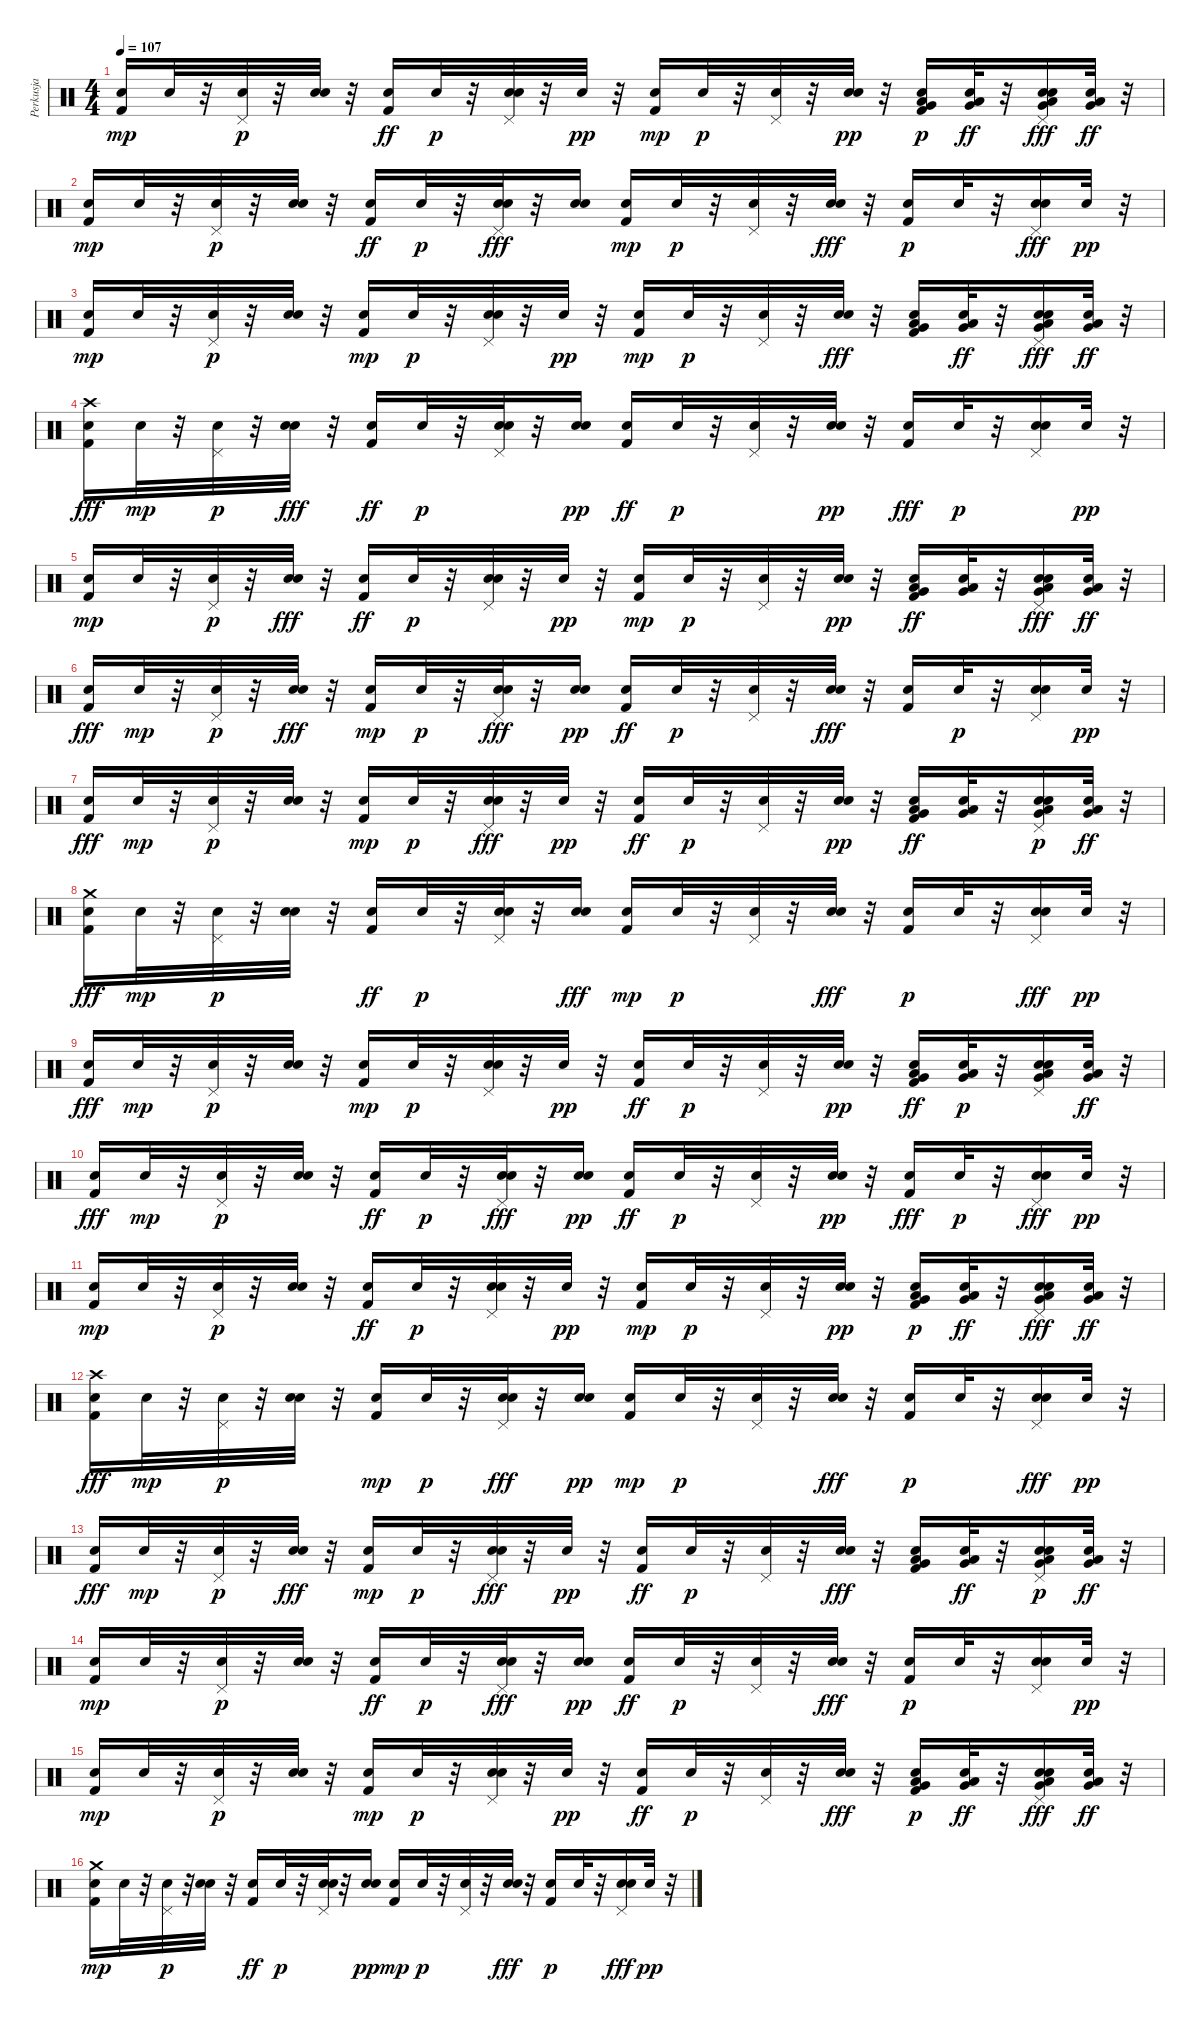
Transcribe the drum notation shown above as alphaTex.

\track ("Perkusja" "Perkusja") {instrument percussion}
\staff {score}
\articulation defaults
\ts (4 4)
\tempo 107
\clef neutral
\ks c
("Kick (hit) 2" "Snare (hit) 2").16{dy mp} "Snare (hit) 2".32 r.32 ("Snare (hit) 2" "Pedal Hi-Hat (hit)").32{dy p} r.32 ("Electric Snare (hit)" "Snare (hit) 2").32 r.32 ("Snare (hit) 2" "Kick (hit) 2").16{dy ff} "Snare (hit) 2".32{dy p} r.32 ("Electric Snare (hit)" "Snare (hit) 2" "Pedal Hi-Hat (hit)").32 r.32 "Snare (hit) 2".32{dy pp} r.32 ("Kick (hit) 2" "Snare (hit) 2").16{dy mp} "Snare (hit) 2".32{dy p} r.32 ("Pedal Hi-Hat (hit)" "Snare (hit) 2").32 r.32 ("Electric Snare (hit)" "Snare (hit) 2").32{dy pp} r.32 ("Kick (hit) 2" "Very Low Tom (hit)" "Low Floor Tom (hit)" "Snare (hit) 2").16{dy p} ("Very Low Tom (hit)" "Snare (hit) 2" "Low Floor Tom (hit)").32{dy ff} r.32 ("Pedal Hi-Hat (hit)" "Snare (hit) 2" "Low Floor Tom (hit)" "Very Low Tom (hit)" "Electric Snare (hit)").16{dy fff} ("Snare (hit) 2" "Low Floor Tom (hit)" "Very Low Tom (hit)").32{dy ff} r.32 |
("Kick (hit) 2" "Snare (hit) 2").16{dy mp} "Snare (hit) 2".32 r.32 ("Snare (hit) 2" "Pedal Hi-Hat (hit)").32{dy p} r.32 ("Electric Snare (hit)" "Snare (hit) 2").32 r.32 ("Snare (hit) 2" "Kick (hit) 2").16{dy ff} "Snare (hit) 2".32{dy p} r.32 ("Snare (hit) 2" "Pedal Hi-Hat (hit)" "Electric Snare (hit)").32{dy fff} r.32 ("Snare (hit) 2" "Electric Snare (hit)").16 ("Kick (hit) 2" "Snare (hit) 2").16{dy mp} "Snare (hit) 2".32{dy p} r.32 ("Snare (hit) 2" "Pedal Hi-Hat (hit)").32 r.32 ("Snare (hit) 2" "Electric Snare (hit)").32{dy fff} r.32 ("Kick (hit) 2" "Snare (hit) 2").16{dy p} "Snare (hit) 2".32 r.32 ("Snare (hit) 2" "Electric Snare (hit)" "Pedal Hi-Hat (hit)").16{dy fff} "Snare (hit) 2".32{dy pp} r.32 |
("Kick (hit) 2" "Snare (hit) 2").16{dy mp} "Snare (hit) 2".32 r.32 ("Pedal Hi-Hat (hit)" "Snare (hit) 2").32{dy p} r.32 ("Electric Snare (hit)" "Snare (hit) 2").32 r.32 ("Kick (hit) 2" "Snare (hit) 2").16{dy mp} "Snare (hit) 2".32{dy p} r.32 ("Electric Snare (hit)" "Pedal Hi-Hat (hit)" "Snare (hit) 2").32 r.32 "Snare (hit) 2".32{dy pp} r.32 ("Kick (hit) 2" "Snare (hit) 2").16{dy mp} "Snare (hit) 2".32{dy p} r.32 ("Pedal Hi-Hat (hit)" "Snare (hit) 2").32 r.32 ("Snare (hit) 2" "Electric Snare (hit)").32{dy fff} r.32 ("Very Low Tom (hit)" "Low Floor Tom (hit)" "Snare (hit) 2" "Kick (hit) 2").16 ("Snare (hit) 2" "Very Low Tom (hit)" "Low Floor Tom (hit)").32{dy ff} r.32 ("Very Low Tom (hit)" "Pedal Hi-Hat (hit)" "Snare (hit) 2" "Low Floor Tom (hit)" "Electric Snare (hit)").16{dy fff} ("Snare (hit) 2" "Very Low Tom (hit)" "Low Floor Tom (hit)").32{dy ff} r.32 |
("Kick (hit) 2" "Snare (hit) 2" "Crash high (hit)").16{dy fff} "Snare (hit) 2".32{dy mp} r.32 ("Pedal Hi-Hat (hit)" "Snare (hit) 2").32{dy p} r.32 ("Snare (hit) 2" "Electric Snare (hit)").32{dy fff} r.32 ("Snare (hit) 2" "Kick (hit) 2").16{dy ff} "Snare (hit) 2".32{dy p} r.32 ("Electric Snare (hit)" "Snare (hit) 2" "Pedal Hi-Hat (hit)").32 r.32 ("Electric Snare (hit)" "Snare (hit) 2").16{dy pp} ("Snare (hit) 2" "Kick (hit) 2").16{dy ff} "Snare (hit) 2".32{dy p} r.32 ("Snare (hit) 2" "Pedal Hi-Hat (hit)").32 r.32 ("Electric Snare (hit)" "Snare (hit) 2").32{dy pp} r.32 ("Snare (hit) 2" "Kick (hit) 2").16{dy fff} "Snare (hit) 2".32{dy p} r.32 ("Pedal Hi-Hat (hit)" "Electric Snare (hit)" "Snare (hit) 2").16 "Snare (hit) 2".32{dy pp} r.32 |
("Kick (hit) 2" "Snare (hit) 2").16{dy mp} "Snare (hit) 2".32 r.32 ("Snare (hit) 2" "Pedal Hi-Hat (hit)").32{dy p} r.32 ("Snare (hit) 2" "Electric Snare (hit)").32{dy fff} r.32 ("Snare (hit) 2" "Kick (hit) 2").16{dy ff} "Snare (hit) 2".32{dy p} r.32 ("Electric Snare (hit)" "Snare (hit) 2" "Pedal Hi-Hat (hit)").32 r.32 "Snare (hit) 2".32{dy pp} r.32 ("Kick (hit) 2" "Snare (hit) 2").16{dy mp} "Snare (hit) 2".32{dy p} r.32 ("Snare (hit) 2" "Pedal Hi-Hat (hit)").32 r.32 ("Electric Snare (hit)" "Snare (hit) 2").32{dy pp} r.32 ("Kick (hit) 2" "Snare (hit) 2" "Low Floor Tom (hit)" "Very Low Tom (hit)").16{dy ff} ("Low Floor Tom (hit)" "Snare (hit) 2" "Very Low Tom (hit)").32 r.32 ("Snare (hit) 2" "Pedal Hi-Hat (hit)" "Electric Snare (hit)" "Very Low Tom (hit)" "Low Floor Tom (hit)").16{dy fff} ("Low Floor Tom (hit)" "Snare (hit) 2" "Very Low Tom (hit)").32{dy ff} r.32 |
("Snare (hit) 2" "Kick (hit) 2").16{dy fff} "Snare (hit) 2".32{dy mp} r.32 ("Snare (hit) 2" "Pedal Hi-Hat (hit)").32{dy p} r.32 ("Snare (hit) 2" "Electric Snare (hit)").32{dy fff} r.32 ("Kick (hit) 2" "Snare (hit) 2").16{dy mp} "Snare (hit) 2".32{dy p} r.32 ("Pedal Hi-Hat (hit)" "Snare (hit) 2" "Electric Snare (hit)").32{dy fff} r.32 ("Electric Snare (hit)" "Snare (hit) 2").16{dy pp} ("Snare (hit) 2" "Kick (hit) 2").16{dy ff} "Snare (hit) 2".32{dy p} r.32 ("Snare (hit) 2" "Pedal Hi-Hat (hit)").32 r.32 ("Snare (hit) 2" "Electric Snare (hit)").32{dy fff} r.32 ("Snare (hit) 2" "Kick (hit) 2").16 "Snare (hit) 2".32{dy p} r.32 ("Pedal Hi-Hat (hit)" "Electric Snare (hit)" "Snare (hit) 2").16 "Snare (hit) 2".32{dy pp} r.32 |
("Snare (hit) 2" "Kick (hit) 2").16{dy fff} "Snare (hit) 2".32{dy mp} r.32 ("Pedal Hi-Hat (hit)" "Snare (hit) 2").32{dy p} r.32 ("Electric Snare (hit)" "Snare (hit) 2").32 r.32 ("Kick (hit) 2" "Snare (hit) 2").16{dy mp} "Snare (hit) 2".32{dy p} r.32 ("Pedal Hi-Hat (hit)" "Snare (hit) 2" "Electric Snare (hit)").32{dy fff} r.32 "Snare (hit) 2".32{dy pp} r.32 ("Snare (hit) 2" "Kick (hit) 2").16{dy ff} "Snare (hit) 2".32{dy p} r.32 ("Snare (hit) 2" "Pedal Hi-Hat (hit)").32 r.32 ("Electric Snare (hit)" "Snare (hit) 2").32{dy pp} r.32 ("Kick (hit) 2" "Snare (hit) 2" "Low Floor Tom (hit)" "Very Low Tom (hit)").16{dy ff} ("Snare (hit) 2" "Very Low Tom (hit)" "Low Floor Tom (hit)").32 r.32 ("Low Floor Tom (hit)" "Electric Snare (hit)" "Very Low Tom (hit)" "Pedal Hi-Hat (hit)" "Snare (hit) 2").16{dy p} ("Snare (hit) 2" "Low Floor Tom (hit)" "Very Low Tom (hit)").32{dy ff} r.32 |
("Kick (hit) 2" "Snare (hit) 2" "Crash medium (hit)").16{dy fff} "Snare (hit) 2".32{dy mp} r.32 ("Pedal Hi-Hat (hit)" "Snare (hit) 2").32{dy p} r.32 ("Electric Snare (hit)" "Snare (hit) 2").32 r.32 ("Snare (hit) 2" "Kick (hit) 2").16{dy ff} "Snare (hit) 2".32{dy p} r.32 ("Electric Snare (hit)" "Pedal Hi-Hat (hit)" "Snare (hit) 2").32 r.32 ("Snare (hit) 2" "Electric Snare (hit)").16{dy fff} ("Kick (hit) 2" "Snare (hit) 2").16{dy mp} "Snare (hit) 2".32{dy p} r.32 ("Snare (hit) 2" "Pedal Hi-Hat (hit)").32 r.32 ("Snare (hit) 2" "Electric Snare (hit)").32{dy fff} r.32 ("Kick (hit) 2" "Snare (hit) 2").16{dy p} "Snare (hit) 2".32 r.32 ("Snare (hit) 2" "Pedal Hi-Hat (hit)" "Electric Snare (hit)").16{dy fff} "Snare (hit) 2".32{dy pp} r.32 |
("Snare (hit) 2" "Kick (hit) 2").16{dy fff} "Snare (hit) 2".32{dy mp} r.32 ("Pedal Hi-Hat (hit)" "Snare (hit) 2").32{dy p} r.32 ("Electric Snare (hit)" "Snare (hit) 2").32 r.32 ("Kick (hit) 2" "Snare (hit) 2").16{dy mp} "Snare (hit) 2".32{dy p} r.32 ("Pedal Hi-Hat (hit)" "Electric Snare (hit)" "Snare (hit) 2").32 r.32 "Snare (hit) 2".32{dy pp} r.32 ("Snare (hit) 2" "Kick (hit) 2").16{dy ff} "Snare (hit) 2".32{dy p} r.32 ("Pedal Hi-Hat (hit)" "Snare (hit) 2").32 r.32 ("Electric Snare (hit)" "Snare (hit) 2").32{dy pp} r.32 ("Snare (hit) 2" "Low Floor Tom (hit)" "Kick (hit) 2" "Very Low Tom (hit)").16{dy ff} ("Low Floor Tom (hit)" "Very Low Tom (hit)" "Snare (hit) 2").32{dy p} r.32 ("Electric Snare (hit)" "Low Floor Tom (hit)" "Very Low Tom (hit)" "Snare (hit) 2" "Pedal Hi-Hat (hit)").16 ("Low Floor Tom (hit)" "Snare (hit) 2" "Very Low Tom (hit)").32{dy ff} r.32 |
("Snare (hit) 2" "Kick (hit) 2").16{dy fff} "Snare (hit) 2".32{dy mp} r.32 ("Pedal Hi-Hat (hit)" "Snare (hit) 2").32{dy p} r.32 ("Electric Snare (hit)" "Snare (hit) 2").32 r.32 ("Snare (hit) 2" "Kick (hit) 2").16{dy ff} "Snare (hit) 2".32{dy p} r.32 ("Snare (hit) 2" "Electric Snare (hit)" "Pedal Hi-Hat (hit)").32{dy fff} r.32 ("Electric Snare (hit)" "Snare (hit) 2").16{dy pp} ("Snare (hit) 2" "Kick (hit) 2").16{dy ff} "Snare (hit) 2".32{dy p} r.32 ("Pedal Hi-Hat (hit)" "Snare (hit) 2").32 r.32 ("Electric Snare (hit)" "Snare (hit) 2").32{dy pp} r.32 ("Snare (hit) 2" "Kick (hit) 2").16{dy fff} "Snare (hit) 2".32{dy p} r.32 ("Snare (hit) 2" "Pedal Hi-Hat (hit)" "Electric Snare (hit)").16{dy fff} "Snare (hit) 2".32{dy pp} r.32 |
("Kick (hit) 2" "Snare (hit) 2").16{dy mp} "Snare (hit) 2".32 r.32 ("Pedal Hi-Hat (hit)" "Snare (hit) 2").32{dy p} r.32 ("Electric Snare (hit)" "Snare (hit) 2").32 r.32 ("Snare (hit) 2" "Kick (hit) 2").16{dy ff} "Snare (hit) 2".32{dy p} r.32 ("Pedal Hi-Hat (hit)" "Electric Snare (hit)" "Snare (hit) 2").32 r.32 "Snare (hit) 2".32{dy pp} r.32 ("Kick (hit) 2" "Snare (hit) 2").16{dy mp} "Snare (hit) 2".32{dy p} r.32 ("Snare (hit) 2" "Pedal Hi-Hat (hit)").32 r.32 ("Electric Snare (hit)" "Snare (hit) 2").32{dy pp} r.32 ("Kick (hit) 2" "Low Floor Tom (hit)" "Very Low Tom (hit)" "Snare (hit) 2").16{dy p} ("Snare (hit) 2" "Low Floor Tom (hit)" "Very Low Tom (hit)").32{dy ff} r.32 ("Low Floor Tom (hit)" "Very Low Tom (hit)" "Pedal Hi-Hat (hit)" "Snare (hit) 2" "Electric Snare (hit)").16{dy fff} ("Snare (hit) 2" "Very Low Tom (hit)" "Low Floor Tom (hit)").32{dy ff} r.32 |
("Snare (hit) 2" "Kick (hit) 2" "Crash high (hit)").16{dy fff} "Snare (hit) 2".32{dy mp} r.32 ("Pedal Hi-Hat (hit)" "Snare (hit) 2").32{dy p} r.32 ("Electric Snare (hit)" "Snare (hit) 2").32 r.32 ("Kick (hit) 2" "Snare (hit) 2").16{dy mp} "Snare (hit) 2".32{dy p} r.32 ("Snare (hit) 2" "Electric Snare (hit)" "Pedal Hi-Hat (hit)").32{dy fff} r.32 ("Electric Snare (hit)" "Snare (hit) 2").16{dy pp} ("Kick (hit) 2" "Snare (hit) 2").16{dy mp} "Snare (hit) 2".32{dy p} r.32 ("Snare (hit) 2" "Pedal Hi-Hat (hit)").32 r.32 ("Snare (hit) 2" "Electric Snare (hit)").32{dy fff} r.32 ("Kick (hit) 2" "Snare (hit) 2").16{dy p} "Snare (hit) 2".32 r.32 ("Pedal Hi-Hat (hit)" "Snare (hit) 2" "Electric Snare (hit)").16{dy fff} "Snare (hit) 2".32{dy pp} r.32 |
("Snare (hit) 2" "Kick (hit) 2").16{dy fff} "Snare (hit) 2".32{dy mp} r.32 ("Snare (hit) 2" "Pedal Hi-Hat (hit)").32{dy p} r.32 ("Snare (hit) 2" "Electric Snare (hit)").32{dy fff} r.32 ("Kick (hit) 2" "Snare (hit) 2").16{dy mp} "Snare (hit) 2".32{dy p} r.32 ("Snare (hit) 2" "Electric Snare (hit)" "Pedal Hi-Hat (hit)").32{dy fff} r.32 "Snare (hit) 2".32{dy pp} r.32 ("Snare (hit) 2" "Kick (hit) 2").16{dy ff} "Snare (hit) 2".32{dy p} r.32 ("Pedal Hi-Hat (hit)" "Snare (hit) 2").32 r.32 ("Snare (hit) 2" "Electric Snare (hit)").32{dy fff} r.32 ("Kick (hit) 2" "Snare (hit) 2" "Very Low Tom (hit)" "Low Floor Tom (hit)").16 ("Snare (hit) 2" "Low Floor Tom (hit)" "Very Low Tom (hit)").32{dy ff} r.32 ("Low Floor Tom (hit)" "Pedal Hi-Hat (hit)" "Electric Snare (hit)" "Very Low Tom (hit)" "Snare (hit) 2").16{dy p} ("Low Floor Tom (hit)" "Snare (hit) 2" "Very Low Tom (hit)").32{dy ff} r.32 |
("Kick (hit) 2" "Snare (hit) 2").16{dy mp} "Snare (hit) 2".32 r.32 ("Pedal Hi-Hat (hit)" "Snare (hit) 2").32{dy p} r.32 ("Electric Snare (hit)" "Snare (hit) 2").32 r.32 ("Snare (hit) 2" "Kick (hit) 2").16{dy ff} "Snare (hit) 2".32{dy p} r.32 ("Snare (hit) 2" "Electric Snare (hit)" "Pedal Hi-Hat (hit)").32{dy fff} r.32 ("Electric Snare (hit)" "Snare (hit) 2").16{dy pp} ("Snare (hit) 2" "Kick (hit) 2").16{dy ff} "Snare (hit) 2".32{dy p} r.32 ("Snare (hit) 2" "Pedal Hi-Hat (hit)").32 r.32 ("Snare (hit) 2" "Electric Snare (hit)").32{dy fff} r.32 ("Kick (hit) 2" "Snare (hit) 2").16{dy p} "Snare (hit) 2".32 r.32 ("Electric Snare (hit)" "Snare (hit) 2" "Pedal Hi-Hat (hit)").16 "Snare (hit) 2".32{dy pp} r.32 |
("Kick (hit) 2" "Snare (hit) 2").16{dy mp} "Snare (hit) 2".32 r.32 ("Snare (hit) 2" "Pedal Hi-Hat (hit)").32{dy p} r.32 ("Electric Snare (hit)" "Snare (hit) 2").32 r.32 ("Kick (hit) 2" "Snare (hit) 2").16{dy mp} "Snare (hit) 2".32{dy p} r.32 ("Electric Snare (hit)" "Pedal Hi-Hat (hit)" "Snare (hit) 2").32 r.32 "Snare (hit) 2".32{dy pp} r.32 ("Snare (hit) 2" "Kick (hit) 2").16{dy ff} "Snare (hit) 2".32{dy p} r.32 ("Pedal Hi-Hat (hit)" "Snare (hit) 2").32 r.32 ("Snare (hit) 2" "Electric Snare (hit)").32{dy fff} r.32 ("Very Low Tom (hit)" "Low Floor Tom (hit)" "Kick (hit) 2" "Snare (hit) 2").16{dy p} ("Snare (hit) 2" "Low Floor Tom (hit)" "Very Low Tom (hit)").32{dy ff} r.32 ("Snare (hit) 2" "Very Low Tom (hit)" "Low Floor Tom (hit)" "Electric Snare (hit)" "Pedal Hi-Hat (hit)").16{dy fff} ("Low Floor Tom (hit)" "Snare (hit) 2" "Very Low Tom (hit)").32{dy ff} r.32 |
("Kick (hit) 2" "Crash medium (hit)" "Snare (hit) 2").16{dy mp} "Snare (hit) 2".32 r.32 ("Snare (hit) 2" "Pedal Hi-Hat (hit)").32{dy p} r.32 ("Electric Snare (hit)" "Snare (hit) 2").32 r.32 ("Snare (hit) 2" "Kick (hit) 2").16{dy ff} "Snare (hit) 2".32{dy p} r.32 ("Pedal Hi-Hat (hit)" "Electric Snare (hit)" "Snare (hit) 2").32 r.32 ("Electric Snare (hit)" "Snare (hit) 2").16{dy pp} ("Kick (hit) 2" "Snare (hit) 2").16{dy mp} "Snare (hit) 2".32{dy p} r.32 ("Pedal Hi-Hat (hit)" "Snare (hit) 2").32 r.32 ("Snare (hit) 2" "Electric Snare (hit)").32{dy fff} r.32 ("Kick (hit) 2" "Snare (hit) 2").16{dy p} "Snare (hit) 2".32 r.32 ("Snare (hit) 2" "Electric Snare (hit)" "Pedal Hi-Hat (hit)").16{dy fff} "Snare (hit) 2".32{dy pp} r.32
